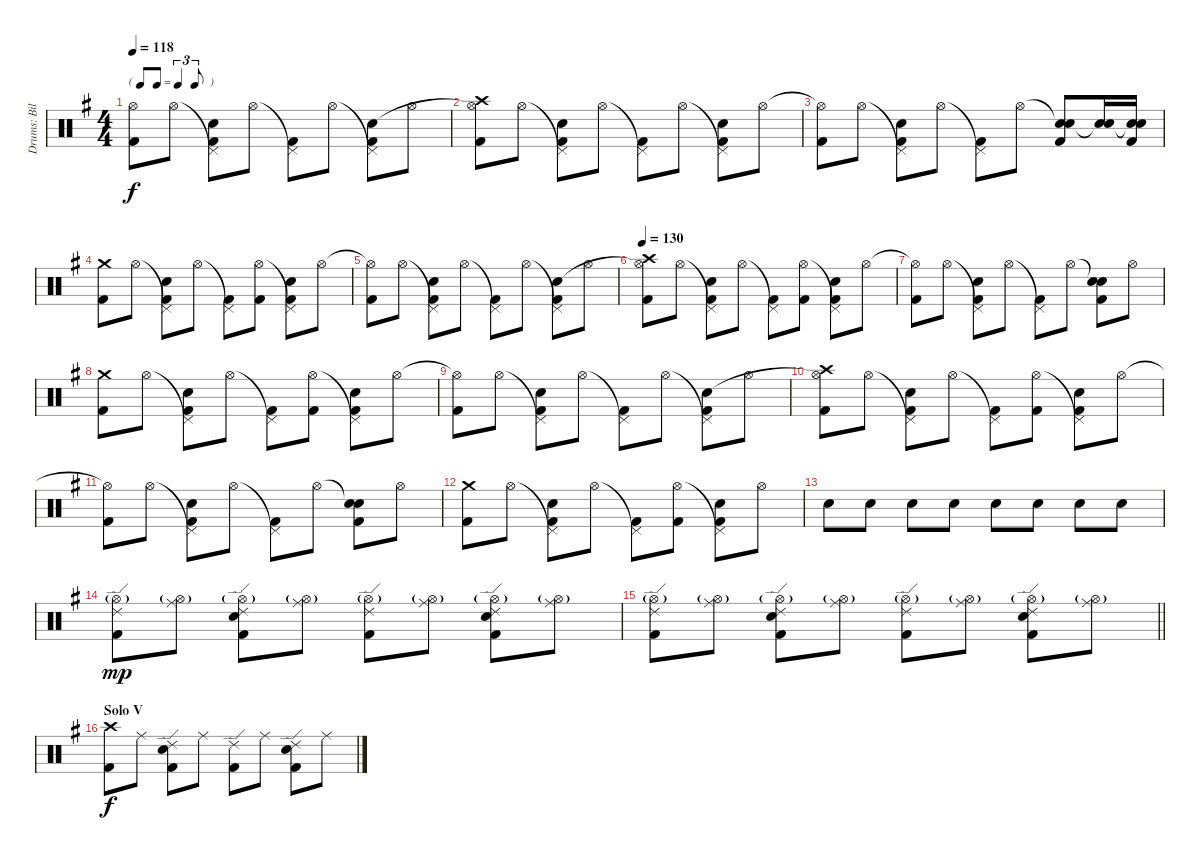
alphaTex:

\track ("Drums: Bill" "Drums: Bil") {instrument percussion}
\staff {score}
\articulation defaults
\ts (4 4)
\tf triplet8th
\tempo 118
\clef neutral
\ks g
("Hi-Hat (open)"{t} "Kick (hit) 2").8{dy f} "Hi-Hat (open)".8 ("Pedal Hi-Hat (hit)"{t} "Snare (hit) 2" "Kick (hit) 2").8 "Hi-Hat (open)".8 ("Pedal Hi-Hat (hit)"{t} "Kick (hit) 2").8 "Hi-Hat (open)".8 ("Pedal Hi-Hat (hit)"{t} "Snare (hit) 2" "Kick (hit) 2").8 "Hi-Hat (open)".8 |
("Crash high (hit)" "Hi-Hat (open)"{t} "Kick (hit) 2").8 "Hi-Hat (open)".8 ("Pedal Hi-Hat (hit)"{t} "Snare (hit) 2" "Kick (hit) 2").8 "Hi-Hat (open)".8 ("Pedal Hi-Hat (hit)"{t} "Kick (hit) 2").8 "Hi-Hat (open)".8 ("Pedal Hi-Hat (hit)"{t} "Snare (hit) 2" "Kick (hit) 2").8 "Hi-Hat (open)".8 |
("Hi-Hat (open)"{t} "Kick (hit) 2").8 "Hi-Hat (open)".8 ("Pedal Hi-Hat (hit)"{t} "Snare (hit) 2" "Kick (hit) 2").8 "Hi-Hat (open)".8 ("Pedal Hi-Hat (hit)"{t} "Kick (hit) 2").8 "Hi-Hat (open)".8 ("Snare (hit)"{t} "Snare (hit) 2" "Kick (hit) 2").8 ("Snare (hit)"{t} "Snare (hit) 2").16 ("Snare (hit)"{t} "Snare (hit) 2" "Kick (hit) 2").16 |
("Crash medium (hit)" "Kick (hit) 2").8 "Hi-Hat (open)".8 ("Pedal Hi-Hat (hit)"{t} "Snare (hit) 2" "Kick (hit) 2").8 "Hi-Hat (open)".8 ("Pedal Hi-Hat (hit)"{t} "Kick (hit) 2").8 ("Hi-Hat (open)" "Kick (hit) 2").8 ("Pedal Hi-Hat (hit)"{t} "Snare (hit) 2" "Kick (hit) 2").8 "Hi-Hat (open)".8 |
("Hi-Hat (open)"{t} "Kick (hit) 2").8 "Hi-Hat (open)".8 ("Pedal Hi-Hat (hit)"{t} "Snare (hit) 2" "Kick (hit) 2").8 "Hi-Hat (open)".8 ("Pedal Hi-Hat (hit)"{t} "Kick (hit) 2").8 "Hi-Hat (open)".8 ("Pedal Hi-Hat (hit)"{t} "Snare (hit) 2" "Kick (hit) 2").8 "Hi-Hat (open)".8 |
\tempo 130
("Crash high (hit)" "Hi-Hat (open)"{t} "Kick (hit) 2").8 "Hi-Hat (open)".8 ("Pedal Hi-Hat (hit)"{t} "Snare (hit) 2" "Kick (hit) 2").8 "Hi-Hat (open)".8 ("Pedal Hi-Hat (hit)"{t} "Kick (hit) 2").8 ("Hi-Hat (open)" "Kick (hit) 2").8 ("Pedal Hi-Hat (hit)"{t} "Snare (hit) 2" "Kick (hit) 2").8 "Hi-Hat (open)".8 |
("Hi-Hat (open)"{t} "Kick (hit) 2").8 "Hi-Hat (open)".8 ("Pedal Hi-Hat (hit)"{t} "Snare (hit) 2" "Kick (hit) 2").8 "Hi-Hat (open)".8 ("Pedal Hi-Hat (hit)"{t} "Kick (hit) 2").8 "Hi-Hat (open)".8 ("Snare (hit)"{t} "Snare (hit) 2" "Kick (hit) 2").8 "Hi-Hat (open)".8 |
("Crash medium (hit)" "Kick (hit) 2").8 "Hi-Hat (open)".8 ("Pedal Hi-Hat (hit)"{t} "Snare (hit) 2" "Kick (hit) 2").8 "Hi-Hat (open)".8 ("Pedal Hi-Hat (hit)"{t} "Kick (hit) 2").8 ("Hi-Hat (open)" "Kick (hit) 2").8 ("Pedal Hi-Hat (hit)"{t} "Snare (hit) 2" "Kick (hit) 2").8 "Hi-Hat (open)".8 |
("Hi-Hat (open)"{t} "Kick (hit) 2").8 "Hi-Hat (open)".8 ("Pedal Hi-Hat (hit)"{t} "Snare (hit) 2" "Kick (hit) 2").8 "Hi-Hat (open)".8 ("Pedal Hi-Hat (hit)"{t} "Kick (hit) 2").8 "Hi-Hat (open)".8 ("Pedal Hi-Hat (hit)"{t} "Snare (hit) 2" "Kick (hit) 2").8 "Hi-Hat (open)".8 |
("Crash high (hit)" "Hi-Hat (open)"{t} "Kick (hit) 2").8 "Hi-Hat (open)".8 ("Pedal Hi-Hat (hit)"{t} "Snare (hit) 2" "Kick (hit) 2").8 "Hi-Hat (open)".8 ("Pedal Hi-Hat (hit)"{t} "Kick (hit) 2").8 ("Hi-Hat (open)" "Kick (hit) 2").8 ("Pedal Hi-Hat (hit)"{t} "Snare (hit) 2" "Kick (hit) 2").8 "Hi-Hat (open)".8 |
("Hi-Hat (open)"{t} "Kick (hit) 2").8 "Hi-Hat (open)".8 ("Pedal Hi-Hat (hit)"{t} "Snare (hit) 2" "Kick (hit) 2").8 "Hi-Hat (open)".8 ("Pedal Hi-Hat (hit)"{t} "Kick (hit) 2").8 "Hi-Hat (open)".8 ("Snare (hit)"{t} "Snare (hit) 2" "Kick (hit) 2").8 "Hi-Hat (open)".8 |
("Crash medium (hit)" "Kick (hit) 2").8 "Hi-Hat (open)".8 ("Pedal Hi-Hat (hit)"{t} "Snare (hit) 2" "Kick (hit) 2").8 "Hi-Hat (open)".8 ("Pedal Hi-Hat (hit)"{t} "Kick (hit) 2").8 ("Hi-Hat (open)" "Kick (hit) 2").8 ("Pedal Hi-Hat (hit)"{t} "Snare (hit) 2" "Kick (hit) 2").8 "Hi-Hat (open)".8 |
"Snare (hit) 2".8 "Snare (hit) 2".8 "Snare (hit) 2".8 "Snare (hit) 2".8 "Snare (hit) 2".8 "Snare (hit) 2".8 "Snare (hit) 2".8 "Snare (hit) 2".8 |
("Ride (edge) 2" "Hi-Hat (open)"{g} "Kick (hit) 2").8{dy mp} ("Ride (middle)" "Hi-Hat (open)"{g}).8 ("Ride (edge) 2" "Hi-Hat (open)"{g} "Snare (hit) 2" "Kick (hit) 2").8 ("Ride (middle)" "Hi-Hat (open)"{g}).8 ("Ride (edge) 2" "Hi-Hat (open)"{g} "Kick (hit) 2").8 ("Ride (middle)" "Hi-Hat (open)"{g}).8 ("Ride (edge) 2" "Hi-Hat (open)"{g} "Snare (hit) 2" "Kick (hit) 2").8 ("Ride (middle)" "Hi-Hat (open)"{g}).8 |
\barLineRight lightlight
("Ride (edge) 2" "Hi-Hat (open)"{g} "Kick (hit) 2").8 ("Ride (middle)" "Hi-Hat (open)"{g}).8 ("Ride (edge) 2" "Hi-Hat (open)"{g} "Snare (hit) 2" "Kick (hit) 2").8 ("Ride (middle)" "Hi-Hat (open)"{g}).8 ("Ride (edge) 2" "Hi-Hat (open)"{g} "Kick (hit) 2").8 ("Ride (middle)" "Hi-Hat (open)"{g}).8 ("Ride (edge) 2" "Hi-Hat (open)"{g} "Snare (hit) 2" "Kick (hit) 2").8 ("Ride (middle)" "Hi-Hat (open)"{g}).8 |
\section ("" "Solo V")
("Crash high (hit)" "Kick (hit) 2").8{dy f} "Ride (middle)".8 ("Ride (edge) 2" "Snare (hit) 2" "Kick (hit) 2").8 "Ride (middle)".8 ("Ride (edge) 2" "Kick (hit) 2").8 "Ride (middle)".8 ("Ride (edge) 2" "Snare (hit) 2" "Kick (hit) 2").8 "Ride (middle)".8
